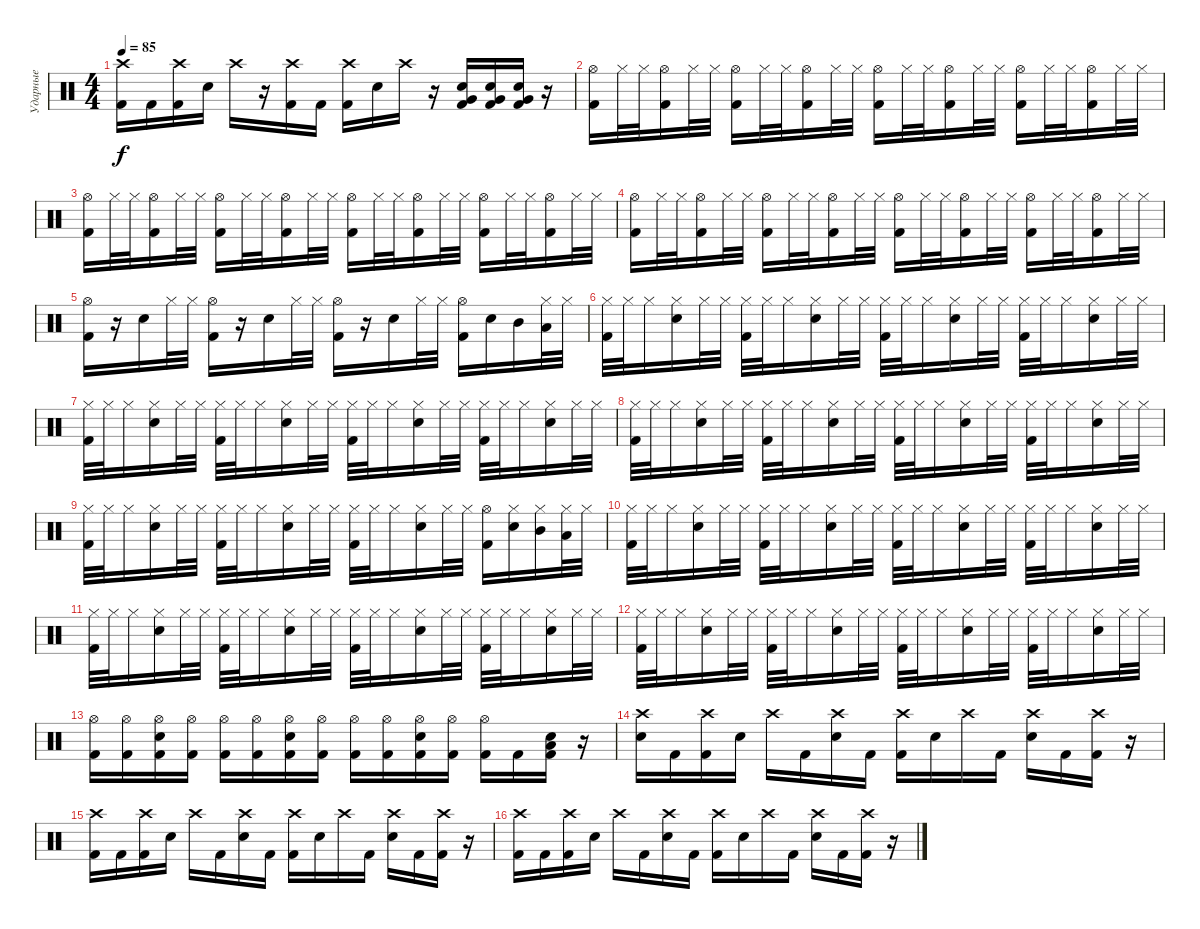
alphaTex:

\track ("Ударные" "Ударные") {instrument percussion}
\staff {score}
\articulation defaults
\ts (4 4)
\tempo 85
\clef neutral
\ks c
("Crash high (hit)" "Kick (hit) 2").16{dy f} "Kick (hit) 2".16 ("Crash high (hit)" "Kick (hit) 2").16 "Electric Snare (hit)".16 "Crash high (hit)".16 r.16 ("Crash high (hit)" "Kick (hit) 2").16 "Kick (hit) 2".16 ("Crash high (hit)" "Kick (hit) 2").16 "Electric Snare (hit)".16 "Crash high (hit)".16 r.16 ("Very Low Tom (hit)" "Electric Snare (hit)" "Kick (hit) 2").16 ("Very Low Tom (hit)" "Electric Snare (hit)" "Kick (hit) 2").16 ("Very Low Tom (hit)" "Electric Snare (hit)" "Kick (hit) 2").16 r.16 |
("Hi-Hat (open)" "Kick (hit) 2").16 "Hi-Hat (closed)".32 "Hi-Hat (closed)".32 ("Hi-Hat (open)" "Kick (hit) 2").16 "Hi-Hat (closed)".32 "Hi-Hat (closed)".32 ("Hi-Hat (open)" "Kick (hit) 2").16 "Hi-Hat (closed)".32 "Hi-Hat (closed)".32 ("Hi-Hat (open)" "Kick (hit) 2").16 "Hi-Hat (closed)".32 "Hi-Hat (closed)".32 ("Hi-Hat (open)" "Kick (hit) 2").16 "Hi-Hat (closed)".32 "Hi-Hat (closed)".32 ("Hi-Hat (open)" "Kick (hit) 2").16 "Hi-Hat (closed)".32 "Hi-Hat (closed)".32 ("Hi-Hat (open)" "Kick (hit) 2").16 "Hi-Hat (closed)".32 "Hi-Hat (closed)".32 ("Hi-Hat (open)" "Kick (hit) 2").16 "Hi-Hat (closed)".32 "Hi-Hat (closed)".32 |
("Hi-Hat (open)" "Kick (hit) 2").16 "Hi-Hat (closed)".32 "Hi-Hat (closed)".32 ("Hi-Hat (open)" "Kick (hit) 2").16 "Hi-Hat (closed)".32 "Hi-Hat (closed)".32 ("Hi-Hat (open)" "Kick (hit) 2").16 "Hi-Hat (closed)".32 "Hi-Hat (closed)".32 ("Hi-Hat (open)" "Kick (hit) 2").16 "Hi-Hat (closed)".32 "Hi-Hat (closed)".32 ("Hi-Hat (open)" "Kick (hit) 2").16 "Hi-Hat (closed)".32 "Hi-Hat (closed)".32 ("Hi-Hat (open)" "Kick (hit) 2").16 "Hi-Hat (closed)".32 "Hi-Hat (closed)".32 ("Hi-Hat (open)" "Kick (hit) 2").16 "Hi-Hat (closed)".32 "Hi-Hat (closed)".32 ("Hi-Hat (open)" "Kick (hit) 2").16 "Hi-Hat (closed)".32 "Hi-Hat (closed)".32 |
("Hi-Hat (open)" "Kick (hit) 2").16 "Hi-Hat (closed)".32 "Hi-Hat (closed)".32 ("Hi-Hat (open)" "Kick (hit) 2").16 "Hi-Hat (closed)".32 "Hi-Hat (closed)".32 ("Hi-Hat (open)" "Kick (hit) 2").16 "Hi-Hat (closed)".32 "Hi-Hat (closed)".32 ("Hi-Hat (open)" "Kick (hit) 2").16 "Hi-Hat (closed)".32 "Hi-Hat (closed)".32 ("Hi-Hat (open)" "Kick (hit) 2").16 "Hi-Hat (closed)".32 "Hi-Hat (closed)".32 ("Hi-Hat (open)" "Kick (hit) 2").16 "Hi-Hat (closed)".32 "Hi-Hat (closed)".32 ("Hi-Hat (open)" "Kick (hit) 2").16 "Hi-Hat (closed)".32 "Hi-Hat (closed)".32 ("Hi-Hat (open)" "Kick (hit) 2").16 "Hi-Hat (closed)".32 "Hi-Hat (closed)".32 |
("Hi-Hat (open)" "Kick (hit) 2").16 r.16 "Electric Snare (hit)".16 "Hi-Hat (closed)".32 "Hi-Hat (closed)".32 ("Hi-Hat (open)" "Kick (hit) 2").16 r.16 "Electric Snare (hit)".16 "Hi-Hat (closed)".32 "Hi-Hat (closed)".32 ("Hi-Hat (open)" "Kick (hit) 2").16 r.16 "Electric Snare (hit)".16 "Hi-Hat (closed)".32 "Hi-Hat (closed)".32 ("Hi-Hat (open)" "Kick (hit) 2").16 "Electric Snare (hit)".16 "Mid Tom (hit)".16 ("Hi-Hat (closed)" "Low Tom (hit)").32 "Hi-Hat (closed)".32 |
("Hi-Hat (closed)" "Kick (hit) 2").32 "Hi-Hat (closed)".32 "Hi-Hat (closed)".16 ("Hi-Hat (closed)" "Electric Snare (hit)").16 "Hi-Hat (closed)".32 "Hi-Hat (closed)".32 ("Hi-Hat (closed)" "Kick (hit) 2").32 "Hi-Hat (closed)".32 "Hi-Hat (closed)".16 ("Hi-Hat (closed)" "Electric Snare (hit)").16 "Hi-Hat (closed)".32 "Hi-Hat (closed)".32 ("Hi-Hat (closed)" "Kick (hit) 2").32 "Hi-Hat (closed)".32 "Hi-Hat (closed)".16 ("Hi-Hat (closed)" "Electric Snare (hit)").16 "Hi-Hat (closed)".32 "Hi-Hat (closed)".32 ("Hi-Hat (closed)" "Kick (hit) 2").32 "Hi-Hat (closed)".32 "Hi-Hat (closed)".16 ("Hi-Hat (closed)" "Electric Snare (hit)").16 "Hi-Hat (closed)".32 "Hi-Hat (closed)".32 |
("Hi-Hat (closed)" "Kick (hit) 2").32 "Hi-Hat (closed)".32 "Hi-Hat (closed)".16 ("Hi-Hat (closed)" "Electric Snare (hit)").16 "Hi-Hat (closed)".32 "Hi-Hat (closed)".32 ("Hi-Hat (closed)" "Kick (hit) 2").32 "Hi-Hat (closed)".32 "Hi-Hat (closed)".16 ("Hi-Hat (closed)" "Electric Snare (hit)").16 "Hi-Hat (closed)".32 "Hi-Hat (closed)".32 ("Hi-Hat (closed)" "Kick (hit) 2").32 "Hi-Hat (closed)".32 "Hi-Hat (closed)".16 ("Hi-Hat (closed)" "Electric Snare (hit)").16 "Hi-Hat (closed)".32 "Hi-Hat (closed)".32 ("Hi-Hat (closed)" "Kick (hit) 2").32 "Hi-Hat (closed)".32 "Hi-Hat (closed)".16 ("Hi-Hat (closed)" "Electric Snare (hit)").16 "Hi-Hat (closed)".32 "Hi-Hat (closed)".32 |
("Hi-Hat (closed)" "Kick (hit) 2").32 "Hi-Hat (closed)".32 "Hi-Hat (closed)".16 ("Hi-Hat (closed)" "Electric Snare (hit)").16 "Hi-Hat (closed)".32 "Hi-Hat (closed)".32 ("Hi-Hat (closed)" "Kick (hit) 2").32 "Hi-Hat (closed)".32 "Hi-Hat (closed)".16 ("Hi-Hat (closed)" "Electric Snare (hit)").16 "Hi-Hat (closed)".32 "Hi-Hat (closed)".32 ("Hi-Hat (closed)" "Kick (hit) 2").32 "Hi-Hat (closed)".32 "Hi-Hat (closed)".16 ("Hi-Hat (closed)" "Electric Snare (hit)").16 "Hi-Hat (closed)".32 "Hi-Hat (closed)".32 ("Hi-Hat (closed)" "Kick (hit) 2").32 "Hi-Hat (closed)".32 "Hi-Hat (closed)".16 ("Hi-Hat (closed)" "Electric Snare (hit)").16 "Hi-Hat (closed)".32 "Hi-Hat (closed)".32 |
("Hi-Hat (closed)" "Kick (hit) 2").32 "Hi-Hat (closed)".32 "Hi-Hat (closed)".16 ("Hi-Hat (closed)" "Electric Snare (hit)").16 "Hi-Hat (closed)".32 "Hi-Hat (closed)".32 ("Hi-Hat (closed)" "Kick (hit) 2").32 "Hi-Hat (closed)".32 "Hi-Hat (closed)".16 ("Hi-Hat (closed)" "Electric Snare (hit)").16 "Hi-Hat (closed)".32 "Hi-Hat (closed)".32 ("Hi-Hat (closed)" "Kick (hit) 2").32 "Hi-Hat (closed)".32 "Hi-Hat (closed)".16 ("Hi-Hat (closed)" "Electric Snare (hit)").16 "Hi-Hat (closed)".32 "Hi-Hat (closed)".32 ("Hi-Hat (open)" "Kick (hit) 2").16 ("Hi-Hat (closed)" "Electric Snare (hit)").16 ("Hi-Hat (closed)" "Mid Tom (hit)").16 ("Hi-Hat (closed)" "Low Tom (hit)").32 "Hi-Hat (closed)".32 |
("Hi-Hat (closed)" "Kick (hit) 2").32 "Hi-Hat (closed)".32 "Hi-Hat (closed)".16 ("Hi-Hat (closed)" "Electric Snare (hit)").16 "Hi-Hat (closed)".32 "Hi-Hat (closed)".32 ("Hi-Hat (closed)" "Kick (hit) 2").32 "Hi-Hat (closed)".32 "Hi-Hat (closed)".16 ("Hi-Hat (closed)" "Electric Snare (hit)").16 "Hi-Hat (closed)".32 "Hi-Hat (closed)".32 ("Hi-Hat (closed)" "Kick (hit) 2").32 "Hi-Hat (closed)".32 "Hi-Hat (closed)".16 ("Hi-Hat (closed)" "Electric Snare (hit)").16 "Hi-Hat (closed)".32 "Hi-Hat (closed)".32 ("Hi-Hat (closed)" "Kick (hit) 2").32 "Hi-Hat (closed)".32 "Hi-Hat (closed)".16 ("Hi-Hat (closed)" "Electric Snare (hit)").16 "Hi-Hat (closed)".32 "Hi-Hat (closed)".32 |
("Hi-Hat (closed)" "Kick (hit) 2").32 "Hi-Hat (closed)".32 "Hi-Hat (closed)".16 ("Hi-Hat (closed)" "Electric Snare (hit)").16 "Hi-Hat (closed)".32 "Hi-Hat (closed)".32 ("Hi-Hat (closed)" "Kick (hit) 2").32 "Hi-Hat (closed)".32 "Hi-Hat (closed)".16 ("Hi-Hat (closed)" "Electric Snare (hit)").16 "Hi-Hat (closed)".32 "Hi-Hat (closed)".32 ("Hi-Hat (closed)" "Kick (hit) 2").32 "Hi-Hat (closed)".32 "Hi-Hat (closed)".16 ("Hi-Hat (closed)" "Electric Snare (hit)").16 "Hi-Hat (closed)".32 "Hi-Hat (closed)".32 ("Hi-Hat (closed)" "Kick (hit) 2").32 "Hi-Hat (closed)".32 "Hi-Hat (closed)".16 ("Hi-Hat (closed)" "Electric Snare (hit)").16 "Hi-Hat (closed)".32 "Hi-Hat (closed)".32 |
("Hi-Hat (closed)" "Kick (hit) 2").32 "Hi-Hat (closed)".32 "Hi-Hat (closed)".16 ("Hi-Hat (closed)" "Electric Snare (hit)").16 "Hi-Hat (closed)".32 "Hi-Hat (closed)".32 ("Hi-Hat (closed)" "Kick (hit) 2").32 "Hi-Hat (closed)".32 "Hi-Hat (closed)".16 ("Hi-Hat (closed)" "Electric Snare (hit)").16 "Hi-Hat (closed)".32 "Hi-Hat (closed)".32 ("Hi-Hat (closed)" "Kick (hit) 2").32 "Hi-Hat (closed)".32 "Hi-Hat (closed)".16 ("Hi-Hat (closed)" "Electric Snare (hit)").16 "Hi-Hat (closed)".32 "Hi-Hat (closed)".32 ("Hi-Hat (closed)" "Kick (hit) 2").32 "Hi-Hat (closed)".32 "Hi-Hat (closed)".16 ("Hi-Hat (closed)" "Electric Snare (hit)").16 "Hi-Hat (closed)".32 "Hi-Hat (closed)".32 |
("Hi-Hat (open)" "Kick (hit) 2").16 ("Hi-Hat (open)" "Kick (hit) 2").16 ("Hi-Hat (open)" "Electric Snare (hit)" "Kick (hit) 2").16 ("Hi-Hat (open)" "Kick (hit) 2").16 ("Hi-Hat (open)" "Kick (hit) 2").16 ("Hi-Hat (open)" "Kick (hit) 2").16 ("Hi-Hat (open)" "Electric Snare (hit)" "Kick (hit) 2").16 ("Hi-Hat (open)" "Kick (hit) 2").16 ("Hi-Hat (open)" "Kick (hit) 2").16 ("Hi-Hat (open)" "Kick (hit) 2").16 ("Hi-Hat (open)" "Electric Snare (hit)" "Kick (hit) 2").16 ("Hi-Hat (open)" "Kick (hit) 2").16 ("Hi-Hat (open)" "Kick (hit) 2").16 "Kick (hit) 2".16 ("Low Tom (hit)" "Electric Snare (hit)" "Kick (hit) 2").16 r.16 |
("Crash high (hit)" "Electric Snare (hit)").16 "Kick (hit) 2".16 ("Crash high (hit)" "Kick (hit) 2").16 "Electric Snare (hit)".16 "Crash high (hit)".16 "Kick (hit) 2".16 ("Crash high (hit)" "Electric Snare (hit)").16 "Kick (hit) 2".16 ("Crash high (hit)" "Kick (hit) 2").16 "Electric Snare (hit)".16 "Crash high (hit)".16 "Kick (hit) 2".16 ("Crash high (hit)" "Electric Snare (hit)").16 "Kick (hit) 2".16 ("Crash high (hit)" "Kick (hit) 2").16 r.16 |
("Crash high (hit)" "Kick (hit) 2").16 "Kick (hit) 2".16 ("Crash high (hit)" "Kick (hit) 2").16 "Electric Snare (hit)".16 "Crash high (hit)".16 "Kick (hit) 2".16 ("Crash high (hit)" "Electric Snare (hit)").16 "Kick (hit) 2".16 ("Crash high (hit)" "Kick (hit) 2").16 "Electric Snare (hit)".16 "Crash high (hit)".16 "Kick (hit) 2".16 ("Crash high (hit)" "Electric Snare (hit)").16 "Kick (hit) 2".16 ("Crash high (hit)" "Kick (hit) 2").16 r.16 |
("Crash high (hit)" "Kick (hit) 2").16 "Kick (hit) 2".16 ("Crash high (hit)" "Kick (hit) 2").16 "Electric Snare (hit)".16 "Crash high (hit)".16 "Kick (hit) 2".16 ("Crash high (hit)" "Electric Snare (hit)").16 "Kick (hit) 2".16 ("Crash high (hit)" "Kick (hit) 2").16 "Electric Snare (hit)".16 "Crash high (hit)".16 "Kick (hit) 2".16 ("Crash high (hit)" "Electric Snare (hit)").16 "Kick (hit) 2".16 ("Crash high (hit)" "Kick (hit) 2").16 r.16
